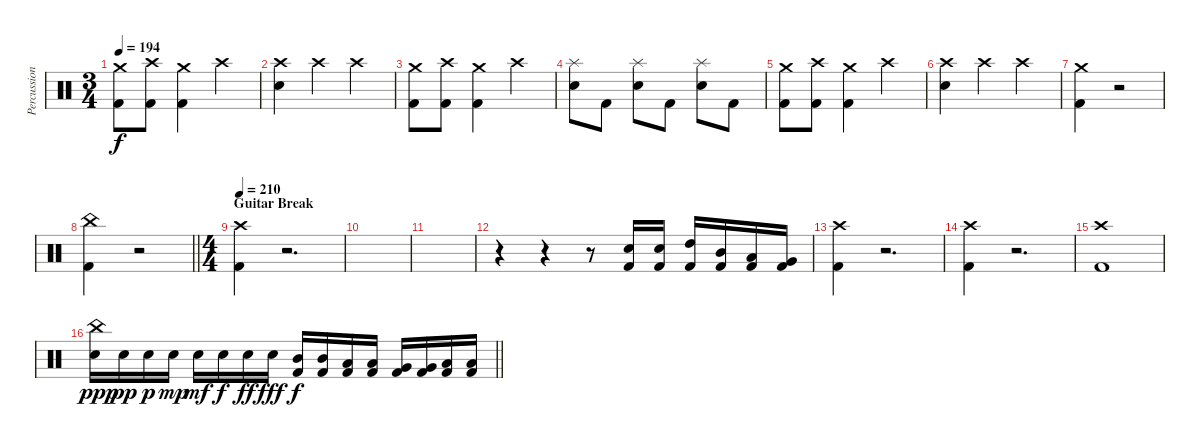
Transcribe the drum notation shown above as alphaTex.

\track ("Percussion" "Percussion") {instrument percussion}
\staff {score}
\articulation defaults
\ts (3 4)
\tempo 194
\clef neutral
\ks c
("Crash medium (hit)" "Kick (hit) 2").8{dy f} ("Crash high (hit)" "Kick (hit) 2").8 ("Crash medium (hit)" "Kick (hit) 2").4 "Crash high (hit)".4 |
("Crash high (hit)" "Electric Snare (hit)").4 "Crash high (hit)".4 "Crash high (hit)".4 |
("Crash medium (hit)" "Kick (hit) 2").8 ("Crash high (hit)" "Kick (hit) 2").8 ("Crash medium (hit)" "Kick (hit) 2").4 "Crash high (hit)".4 |
("Splash (hit)" "Electric Snare (hit)").8 "Kick (hit) 2".8 ("Splash (hit)" "Electric Snare (hit)").8 "Kick (hit) 2".8 ("Splash (hit)" "Electric Snare (hit)").8 "Kick (hit) 2".8 |
("Crash medium (hit)" "Kick (hit) 2").8 ("Crash high (hit)" "Kick (hit) 2").8 ("Crash medium (hit)" "Kick (hit) 2").4 "Crash high (hit)".4 |
("Crash high (hit)" "Electric Snare (hit)").4 "Crash high (hit)".4 "Crash high (hit)".4 |
("Crash medium (hit)" "Kick (hit) 2").4 r.2{volume 0} |
\barLineRight lightlight
("China (hit)" "Kick (hit) 2").4{volume 13} r.2{volume 0} |
\ts (4 4)
\section ("" "Guitar Break")
\tempo 210
("Crash high (hit)" "Kick (hit) 2").4{volume 13} r.2{d volume 0} |
|
|
r.4{volume 13} r.4 r.8 ("Electric Snare (hit)" "Kick (hit) 2").16 ("Electric Snare (hit)" "Kick (hit) 2").16 ("High Tom (hit)" "Kick (hit) 2").16 ("Mid Tom (hit)" "Kick (hit) 2").16 ("Low Tom (hit)" "Kick (hit) 2").16 ("Very Low Tom (hit)" "Kick (hit) 2").16 |
("Crash high (hit)" "Kick (hit) 2").4{volume 13} r.2{d volume 0} |
("Crash high (hit)" "Kick (hit) 2").4{volume 13} r.2{d volume 0} |
("Crash high (hit)" "Kick (hit) 2").1{volume 13} |
\barLineRight lightlight
("China (hit)" "Electric Snare (hit)").16{dy ppp} "Electric Snare (hit)".16{dy pp} "Electric Snare (hit)".16{dy p} "Electric Snare (hit)".16{dy mp} "Electric Snare (hit)".16{dy mf} "Electric Snare (hit)".16{dy f} "Electric Snare (hit)".16{dy ff} "Electric Snare (hit)".16{dy fff} ("Mid Tom (hit)" "Kick (hit) 2").16{dy f} ("Mid Tom (hit)" "Kick (hit) 2").16 ("Low Tom (hit)" "Kick (hit) 2").16 ("Low Tom (hit)" "Kick (hit) 2").16 ("Very Low Tom (hit)" "Kick (hit) 2").16 ("Very Low Tom (hit)" "Kick (hit) 2").16 ("Low Floor Tom (hit)" "Kick (hit) 2").16 ("Low Floor Tom (hit)" "Kick (hit) 2").16
